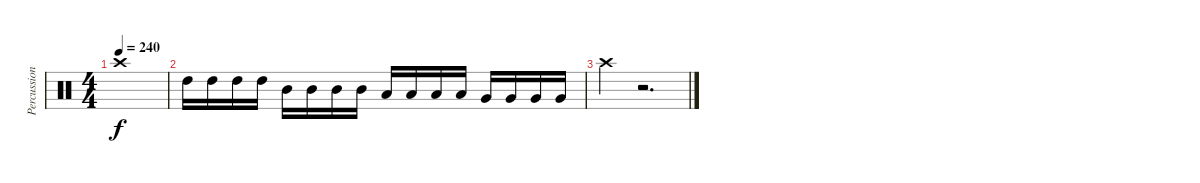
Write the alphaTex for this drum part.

\track ("Percussion" "Percussion") {instrument percussion}
\staff {score}
\articulation defaults
\ts (4 4)
\tempo 240
\clef neutral
\ks c "Crash high (hit)".1{dy f}
|
"High Tom (hit)".16 "High Tom (hit)".16 "High Tom (hit)".16 "High Tom (hit)".16 "Mid Tom (hit)".16 "Mid Tom (hit)".16 "Mid Tom (hit)".16 "Mid Tom (hit)".16 "Low Tom (hit)".16 "Low Tom (hit)".16 "Low Tom (hit)".16 "Low Tom (hit)".16 "Very Low Tom (hit)".16 "Very Low Tom (hit)".16 "Very Low Tom (hit)".16 "Very Low Tom (hit)".16 |
"Crash high (hit)".4 r.2{d}
